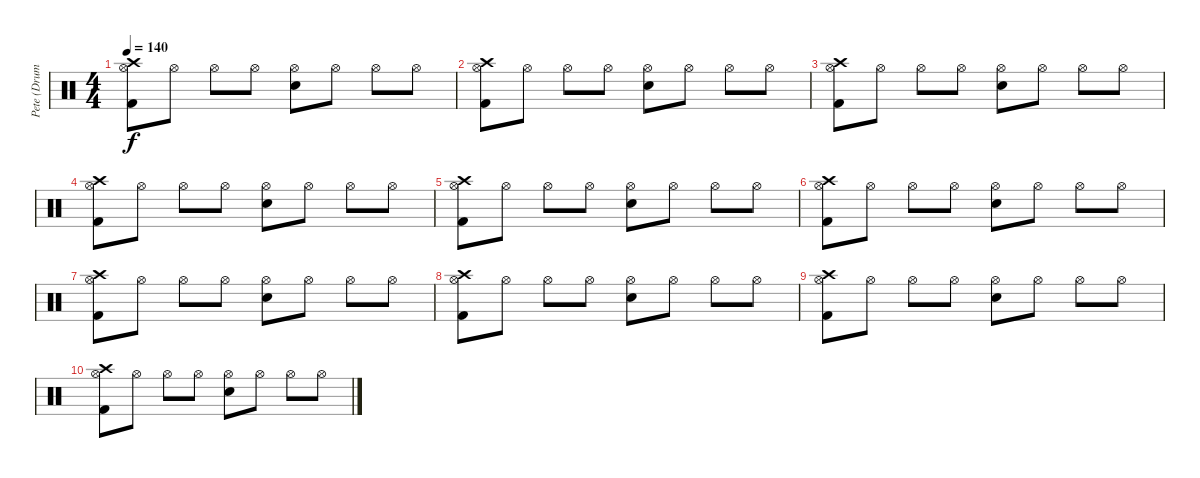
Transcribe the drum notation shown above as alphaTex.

\track ("Pete (Drums)" "Pete (Drum") {instrument percussion}
\staff {score}
\articulation defaults
\ts (4 4)
\tempo 140
\clef neutral
\ks c
("Hi-Hat (open)" "Kick (hit) 2" "Crash high (hit)").8{dy f} "Hi-Hat (open)".8 "Hi-Hat (open)".8 "Hi-Hat (open)".8 ("Hi-Hat (open)" "Snare (hit) 2").8 "Hi-Hat (open)".8 "Hi-Hat (open)".8 "Hi-Hat (open)".8 |
("Hi-Hat (open)" "Kick (hit) 2" "Crash high (hit)").8 "Hi-Hat (open)".8 "Hi-Hat (open)".8 "Hi-Hat (open)".8 ("Hi-Hat (open)" "Snare (hit) 2").8 "Hi-Hat (open)".8 "Hi-Hat (open)".8 "Hi-Hat (open)".8 |
("Hi-Hat (open)" "Kick (hit) 2" "Crash high (hit)").8 "Hi-Hat (open)".8 "Hi-Hat (open)".8 "Hi-Hat (open)".8 ("Hi-Hat (open)" "Snare (hit) 2").8 "Hi-Hat (open)".8 "Hi-Hat (open)".8 "Hi-Hat (open)".8 |
("Hi-Hat (open)" "Kick (hit) 2" "Crash high (hit)").8 "Hi-Hat (open)".8 "Hi-Hat (open)".8 "Hi-Hat (open)".8 ("Hi-Hat (open)" "Snare (hit) 2").8 "Hi-Hat (open)".8 "Hi-Hat (open)".8 "Hi-Hat (open)".8 |
("Hi-Hat (open)" "Kick (hit) 2" "Crash high (hit)").8 "Hi-Hat (open)".8 "Hi-Hat (open)".8 "Hi-Hat (open)".8 ("Hi-Hat (open)" "Snare (hit) 2").8 "Hi-Hat (open)".8 "Hi-Hat (open)".8 "Hi-Hat (open)".8 |
("Hi-Hat (open)" "Kick (hit) 2" "Crash high (hit)").8 "Hi-Hat (open)".8 "Hi-Hat (open)".8 "Hi-Hat (open)".8 ("Hi-Hat (open)" "Snare (hit) 2").8 "Hi-Hat (open)".8 "Hi-Hat (open)".8 "Hi-Hat (open)".8 |
("Hi-Hat (open)" "Kick (hit) 2" "Crash high (hit)").8 "Hi-Hat (open)".8 "Hi-Hat (open)".8 "Hi-Hat (open)".8 ("Hi-Hat (open)" "Snare (hit) 2").8 "Hi-Hat (open)".8 "Hi-Hat (open)".8 "Hi-Hat (open)".8 |
("Hi-Hat (open)" "Kick (hit) 2" "Crash high (hit)").8 "Hi-Hat (open)".8 "Hi-Hat (open)".8 "Hi-Hat (open)".8 ("Hi-Hat (open)" "Snare (hit) 2").8 "Hi-Hat (open)".8 "Hi-Hat (open)".8 "Hi-Hat (open)".8 |
("Hi-Hat (open)" "Kick (hit) 2" "Crash high (hit)").8 "Hi-Hat (open)".8 "Hi-Hat (open)".8 "Hi-Hat (open)".8 ("Hi-Hat (open)" "Snare (hit) 2").8 "Hi-Hat (open)".8 "Hi-Hat (open)".8 "Hi-Hat (open)".8 |
("Hi-Hat (open)" "Kick (hit) 2" "Crash high (hit)").8 "Hi-Hat (open)".8 "Hi-Hat (open)".8 "Hi-Hat (open)".8 ("Hi-Hat (open)" "Snare (hit) 2").8 "Hi-Hat (open)".8 "Hi-Hat (open)".8 "Hi-Hat (open)".8
